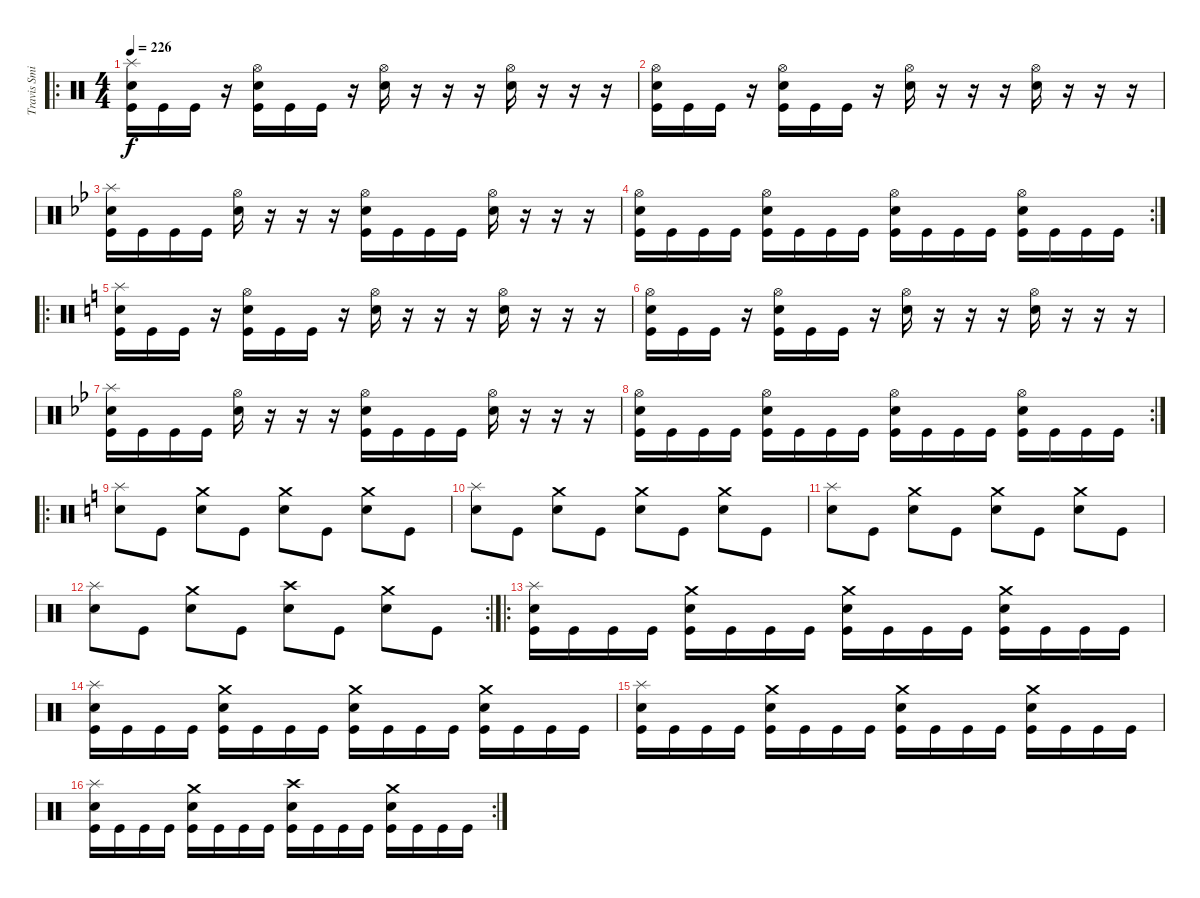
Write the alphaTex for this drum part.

\track ("Travis Smith" "Travis Smi") {instrument percussion}
\staff {score}
\articulation defaults
\ro
\ts (4 4)
\tempo 226
\clef neutral
\ks c
("Splash (hit)" "Electric Snare (hit)" "Kick (hit)").16{dy f} "Kick (hit)".16 "Kick (hit)".16 r.16 ("Hi-Hat (open)" "Electric Snare (hit)" "Kick (hit)").16 "Kick (hit)".16 "Kick (hit)".16 r.16 ("Hi-Hat (open)" "Electric Snare (hit)").16 r.16 r.16 r.16 ("Hi-Hat (open)" "Electric Snare (hit)").16 r.16 r.16 r.16 |
("Hi-Hat (open)" "Electric Snare (hit)" "Kick (hit)").16 "Kick (hit)".16 "Kick (hit)".16 r.16 ("Hi-Hat (open)" "Electric Snare (hit)" "Kick (hit)").16 "Kick (hit)".16 "Kick (hit)".16 r.16 ("Hi-Hat (open)" "Electric Snare (hit)").16 r.16 r.16 r.16 ("Hi-Hat (open)" "Electric Snare (hit)").16 r.16 r.16 r.16 |
\ks bb
("Splash (hit)" "Electric Snare (hit)" "Kick (hit)").16 "Kick (hit)".16 "Kick (hit)".16 "Kick (hit)".16 ("Hi-Hat (open)" "Electric Snare (hit)").16 r.16 r.16 r.16 ("Hi-Hat (open)" "Electric Snare (hit)" "Kick (hit)").16 "Kick (hit)".16 "Kick (hit)".16 "Kick (hit)".16 ("Hi-Hat (open)" "Electric Snare (hit)").16 r.16 r.16 r.16 |
\rc 2
("Hi-Hat (open)" "Electric Snare (hit)" "Kick (hit)").16 "Kick (hit)".16 "Kick (hit)".16 "Kick (hit)".16 ("Hi-Hat (open)" "Electric Snare (hit)" "Kick (hit)").16 "Kick (hit)".16 "Kick (hit)".16 "Kick (hit)".16 ("Hi-Hat (open)" "Electric Snare (hit)" "Kick (hit)").16 "Kick (hit)".16 "Kick (hit)".16 "Kick (hit)".16 ("Hi-Hat (open)" "Electric Snare (hit)" "Kick (hit)").16 "Kick (hit)".16 "Kick (hit)".16 "Kick (hit)".16 |
\ro
\ks c
("Splash (hit)" "Electric Snare (hit)" "Kick (hit)").16 "Kick (hit)".16 "Kick (hit)".16 r.16 ("Hi-Hat (open)" "Electric Snare (hit)" "Kick (hit)").16 "Kick (hit)".16 "Kick (hit)".16 r.16 ("Hi-Hat (open)" "Electric Snare (hit)").16 r.16 r.16 r.16 ("Hi-Hat (open)" "Electric Snare (hit)").16 r.16 r.16 r.16 |
("Hi-Hat (open)" "Electric Snare (hit)" "Kick (hit)").16 "Kick (hit)".16 "Kick (hit)".16 r.16 ("Hi-Hat (open)" "Electric Snare (hit)" "Kick (hit)").16 "Kick (hit)".16 "Kick (hit)".16 r.16 ("Hi-Hat (open)" "Electric Snare (hit)").16 r.16 r.16 r.16 ("Hi-Hat (open)" "Electric Snare (hit)").16 r.16 r.16 r.16 |
\ks bb
("Splash (hit)" "Electric Snare (hit)" "Kick (hit)").16 "Kick (hit)".16 "Kick (hit)".16 "Kick (hit)".16 ("Hi-Hat (open)" "Electric Snare (hit)").16 r.16 r.16 r.16 ("Hi-Hat (open)" "Electric Snare (hit)" "Kick (hit)").16 "Kick (hit)".16 "Kick (hit)".16 "Kick (hit)".16 ("Hi-Hat (open)" "Electric Snare (hit)").16 r.16 r.16 r.16 |
\rc 2
("Hi-Hat (open)" "Electric Snare (hit)" "Kick (hit)").16 "Kick (hit)".16 "Kick (hit)".16 "Kick (hit)".16 ("Hi-Hat (open)" "Electric Snare (hit)" "Kick (hit)").16 "Kick (hit)".16 "Kick (hit)".16 "Kick (hit)".16 ("Hi-Hat (open)" "Electric Snare (hit)" "Kick (hit)").16 "Kick (hit)".16 "Kick (hit)".16 "Kick (hit)".16 ("Hi-Hat (open)" "Electric Snare (hit)" "Kick (hit)").16 "Kick (hit)".16 "Kick (hit)".16 "Kick (hit)".16 |
\ro
\ks c
("Splash (hit)" "Electric Snare (hit)").8 "Kick (hit)".8 ("Crash medium (hit)" "Electric Snare (hit)").8 "Kick (hit)".8 ("Crash medium (hit)" "Electric Snare (hit)").8 "Kick (hit)".8 ("Crash medium (hit)" "Electric Snare (hit)").8 "Kick (hit)".8 |
("Splash (hit)" "Electric Snare (hit)").8 "Kick (hit)".8 ("Crash medium (hit)" "Electric Snare (hit)").8 "Kick (hit)".8 ("Crash medium (hit)" "Electric Snare (hit)").8 "Kick (hit)".8 ("Crash medium (hit)" "Electric Snare (hit)").8 "Kick (hit)".8 |
("Splash (hit)" "Electric Snare (hit)").8 "Kick (hit)".8 ("Crash medium (hit)" "Electric Snare (hit)").8 "Kick (hit)".8 ("Crash medium (hit)" "Electric Snare (hit)").8 "Kick (hit)".8 ("Crash medium (hit)" "Electric Snare (hit)").8 "Kick (hit)".8 |
\rc 2
("Splash (hit)" "Electric Snare (hit)").8 "Kick (hit)".8 ("Crash medium (hit)" "Electric Snare (hit)").8 "Kick (hit)".8 ("Crash high (hit)" "Electric Snare (hit)").8 "Kick (hit)".8 ("Crash medium (hit)" "Electric Snare (hit)").8 "Kick (hit)".8 |
\ro
("Splash (hit)" "Electric Snare (hit)" "Kick (hit)").16 "Kick (hit)".16 "Kick (hit)".16 "Kick (hit)".16 ("Crash medium (hit)" "Electric Snare (hit)" "Kick (hit)").16 "Kick (hit)".16 "Kick (hit)".16 "Kick (hit)".16 ("Crash medium (hit)" "Electric Snare (hit)" "Kick (hit)").16 "Kick (hit)".16 "Kick (hit)".16 "Kick (hit)".16 ("Crash medium (hit)" "Electric Snare (hit)" "Kick (hit)").16 "Kick (hit)".16 "Kick (hit)".16 "Kick (hit)".16 |
("Splash (hit)" "Electric Snare (hit)" "Kick (hit)").16 "Kick (hit)".16 "Kick (hit)".16 "Kick (hit)".16 ("Crash medium (hit)" "Electric Snare (hit)" "Kick (hit)").16 "Kick (hit)".16 "Kick (hit)".16 "Kick (hit)".16 ("Crash medium (hit)" "Electric Snare (hit)" "Kick (hit)").16 "Kick (hit)".16 "Kick (hit)".16 "Kick (hit)".16 ("Crash medium (hit)" "Electric Snare (hit)" "Kick (hit)").16 "Kick (hit)".16 "Kick (hit)".16 "Kick (hit)".16 |
("Splash (hit)" "Electric Snare (hit)" "Kick (hit)").16 "Kick (hit)".16 "Kick (hit)".16 "Kick (hit)".16 ("Crash medium (hit)" "Electric Snare (hit)" "Kick (hit)").16 "Kick (hit)".16 "Kick (hit)".16 "Kick (hit)".16 ("Crash medium (hit)" "Electric Snare (hit)" "Kick (hit)").16 "Kick (hit)".16 "Kick (hit)".16 "Kick (hit)".16 ("Crash medium (hit)" "Electric Snare (hit)" "Kick (hit)").16 "Kick (hit)".16 "Kick (hit)".16 "Kick (hit)".16 |
\rc 2
("Splash (hit)" "Electric Snare (hit)" "Kick (hit)").16 "Kick (hit)".16 "Kick (hit)".16 "Kick (hit)".16 ("Crash medium (hit)" "Electric Snare (hit)" "Kick (hit)").16 "Kick (hit)".16 "Kick (hit)".16 "Kick (hit)".16 ("Crash high (hit)" "Electric Snare (hit)" "Kick (hit)").16 "Kick (hit)".16 "Kick (hit)".16 "Kick (hit)".16 ("Crash medium (hit)" "Electric Snare (hit)" "Kick (hit)").16 "Kick (hit)".16 "Kick (hit)".16 "Kick (hit)".16
